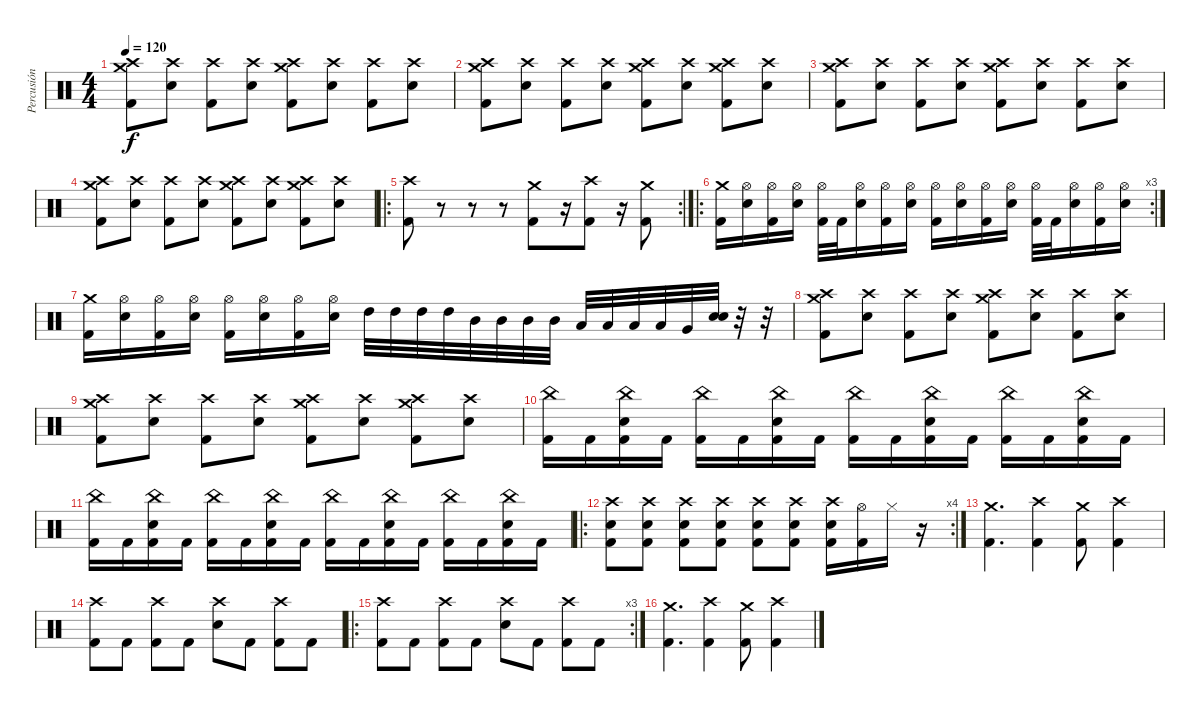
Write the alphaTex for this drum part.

\track ("Percusión" "Percusión") {instrument percussion}
\staff {score}
\articulation defaults
\ts (4 4)
\tempo 120
\clef neutral
\ks c
("Crash medium (hit)" "Crash high (hit)" "Kick (hit) 2").8{dy f} ("Crash high (hit)" "Electric Snare (hit)").8 ("Crash high (hit)" "Kick (hit) 2").8 ("Crash high (hit)" "Electric Snare (hit)").8 ("Crash medium (hit)" "Crash high (hit)" "Kick (hit) 2").8 ("Crash high (hit)" "Electric Snare (hit)").8 ("Crash high (hit)" "Kick (hit) 2").8 ("Crash high (hit)" "Electric Snare (hit)").8 |
("Crash medium (hit)" "Crash high (hit)" "Kick (hit) 2").8 ("Crash high (hit)" "Electric Snare (hit)").8 ("Crash high (hit)" "Kick (hit) 2").8 ("Crash high (hit)" "Electric Snare (hit)").8 ("Crash medium (hit)" "Crash high (hit)" "Kick (hit) 2").8 ("Crash high (hit)" "Electric Snare (hit)").8 ("Crash medium (hit)" "Crash high (hit)" "Kick (hit) 2").8 ("Crash high (hit)" "Electric Snare (hit)").8 |
("Crash medium (hit)" "Crash high (hit)" "Kick (hit) 2").8 ("Crash high (hit)" "Electric Snare (hit)").8 ("Crash high (hit)" "Kick (hit) 2").8 ("Crash high (hit)" "Electric Snare (hit)").8 ("Crash medium (hit)" "Crash high (hit)" "Kick (hit) 2").8 ("Crash high (hit)" "Electric Snare (hit)").8 ("Crash high (hit)" "Kick (hit) 2").8 ("Crash high (hit)" "Electric Snare (hit)").8 |
("Crash medium (hit)" "Crash high (hit)" "Kick (hit) 2").8 ("Crash high (hit)" "Electric Snare (hit)").8 ("Crash high (hit)" "Kick (hit) 2").8 ("Crash high (hit)" "Electric Snare (hit)").8 ("Crash medium (hit)" "Crash high (hit)" "Kick (hit) 2").8 ("Crash high (hit)" "Electric Snare (hit)").8 ("Crash medium (hit)" "Crash high (hit)" "Kick (hit) 2").8 ("Crash high (hit)" "Electric Snare (hit)").8 |
\ro
\rc 2
("Crash high (hit)" "Kick (hit) 2").8 r.8 r.8 r.8 ("Crash medium (hit)" "Kick (hit) 2").8 r.16 ("Crash high (hit)" "Kick (hit) 2").8 r.16 ("Crash medium (hit)" "Kick (hit) 2").8 |
\ro
\rc 3
("Crash medium (hit)" "Kick (hit) 2").16 ("Hi-Hat (open)" "Electric Snare (hit)").16 ("Hi-Hat (open)" "Kick (hit) 2").16 ("Hi-Hat (open)" "Electric Snare (hit)").16 ("Hi-Hat (open)" "Kick (hit) 2").32 "Kick (hit) 2".32 ("Hi-Hat (open)" "Electric Snare (hit)").16 ("Hi-Hat (open)" "Kick (hit) 2").16 ("Hi-Hat (open)" "Electric Snare (hit)").16 ("Hi-Hat (open)" "Kick (hit) 2").16 ("Hi-Hat (open)" "Electric Snare (hit)").16 ("Hi-Hat (open)" "Kick (hit) 2").16 ("Hi-Hat (open)" "Electric Snare (hit)").16 ("Hi-Hat (open)" "Kick (hit) 2").32 "Kick (hit) 2".32 ("Hi-Hat (open)" "Electric Snare (hit)").16 ("Hi-Hat (open)" "Kick (hit) 2").16 ("Hi-Hat (open)" "Electric Snare (hit)").16 |
("Crash medium (hit)" "Kick (hit) 2").16 ("Hi-Hat (open)" "Electric Snare (hit)").16 ("Hi-Hat (open)" "Kick (hit) 2").16 ("Hi-Hat (open)" "Electric Snare (hit)").16 ("Hi-Hat (open)" "Kick (hit) 2").16 ("Hi-Hat (open)" "Electric Snare (hit)").16 ("Hi-Hat (open)" "Kick (hit) 2").16 ("Hi-Hat (open)" "Electric Snare (hit)").16 "High Tom (hit)".32 "High Tom (hit)".32 "High Tom (hit)".32 "High Tom (hit)".32 "Mid Tom (hit)".32 "Mid Tom (hit)".32 "Mid Tom (hit)".32 "Mid Tom (hit)".32 "Low Tom (hit)".32 "Low Tom (hit)".32 "Low Tom (hit)".32 "Low Tom (hit)".32 "Very Low Tom (hit)".32 ("Electric Snare (hit)" "Electric Snare (hit)").32 r.32 r.32 |
("Crash medium (hit)" "Crash high (hit)" "Kick (hit) 2").8 ("Crash high (hit)" "Electric Snare (hit)").8 ("Crash high (hit)" "Kick (hit) 2").8 ("Crash high (hit)" "Electric Snare (hit)").8 ("Crash medium (hit)" "Crash high (hit)" "Kick (hit) 2").8 ("Crash high (hit)" "Electric Snare (hit)").8 ("Crash high (hit)" "Kick (hit) 2").8 ("Crash high (hit)" "Electric Snare (hit)").8 |
("Crash medium (hit)" "Crash high (hit)" "Kick (hit) 2").8 ("Crash high (hit)" "Electric Snare (hit)").8 ("Crash high (hit)" "Kick (hit) 2").8 ("Crash high (hit)" "Electric Snare (hit)").8 ("Crash medium (hit)" "Crash high (hit)" "Kick (hit) 2").8 ("Crash high (hit)" "Electric Snare (hit)").8 ("Crash medium (hit)" "Crash high (hit)" "Kick (hit) 2").8 ("Crash high (hit)" "Electric Snare (hit)").8 |
("China (hit)" "Kick (hit) 2").16 "Kick (hit) 2".16 ("China (hit)" "Electric Snare (hit)" "Kick (hit) 2").16 "Kick (hit) 2".16 ("China (hit)" "Kick (hit) 2").16 "Kick (hit) 2".16 ("China (hit)" "Electric Snare (hit)" "Kick (hit) 2").16 "Kick (hit) 2".16 ("China (hit)" "Kick (hit) 2").16 "Kick (hit) 2".16 ("China (hit)" "Electric Snare (hit)" "Kick (hit) 2").16 "Kick (hit) 2".16 ("China (hit)" "Kick (hit) 2").16 "Kick (hit) 2".16 ("China (hit)" "Electric Snare (hit)" "Kick (hit) 2").16 "Kick (hit) 2".16 |
("China (hit)" "Kick (hit) 2").16 "Kick (hit) 2".16 ("China (hit)" "Electric Snare (hit)" "Kick (hit) 2").16 "Kick (hit) 2".16 ("China (hit)" "Kick (hit) 2").16 "Kick (hit) 2".16 ("China (hit)" "Electric Snare (hit)" "Kick (hit) 2").16 "Kick (hit) 2".16 ("China (hit)" "Kick (hit) 2").16 "Kick (hit) 2".16 ("China (hit)" "Electric Snare (hit)" "Kick (hit) 2").16 "Kick (hit) 2".16 ("China (hit)" "Kick (hit) 2").16 "Kick (hit) 2".16 ("China (hit)" "Electric Snare (hit)" "Kick (hit) 2").16 "Kick (hit) 2".16 |
\ro
\rc 4
("Crash high (hit)" "Electric Snare (hit)" "Kick (hit) 2").8 ("Crash high (hit)" "Electric Snare (hit)" "Kick (hit) 2").8 ("Crash high (hit)" "Electric Snare (hit)" "Kick (hit) 2").8 ("Crash high (hit)" "Electric Snare (hit)" "Kick (hit) 2").8 ("Crash high (hit)" "Electric Snare (hit)" "Kick (hit) 2").8 ("Crash high (hit)" "Electric Snare (hit)" "Kick (hit) 2").8 ("Crash high (hit)" "Electric Snare (hit)" "Kick (hit) 2").16 ("Hi-Hat (open)" "Kick (hit) 2").16 "Hi-Hat (closed)".16 r.16 |
("Crash medium (hit)" "Kick (hit) 2").4{d} ("Crash high (hit)" "Kick (hit) 2").4 ("Crash medium (hit)" "Kick (hit) 2").8 ("Crash high (hit)" "Kick (hit) 2").4 |
("Crash high (hit)" "Kick (hit) 2").8 "Kick (hit) 2".8 ("Crash high (hit)" "Kick (hit) 2").8 "Kick (hit) 2".8 ("Crash high (hit)" "Electric Snare (hit)").8 "Kick (hit) 2".8 ("Crash high (hit)" "Kick (hit) 2").8 "Kick (hit) 2".8 |
\ro
\rc 3
("Crash high (hit)" "Kick (hit) 2").8 "Kick (hit) 2".8 ("Crash high (hit)" "Kick (hit) 2").8 "Kick (hit) 2".8 ("Crash high (hit)" "Electric Snare (hit)").8 "Kick (hit) 2".8 ("Crash high (hit)" "Kick (hit) 2").8 "Kick (hit) 2".8 |
("Crash medium (hit)" "Kick (hit) 2").4{d} ("Crash high (hit)" "Kick (hit) 2").4 ("Crash medium (hit)" "Kick (hit) 2").8 ("Crash high (hit)" "Kick (hit) 2").4
